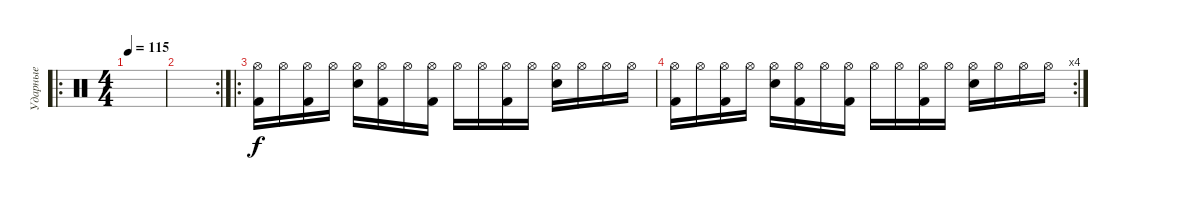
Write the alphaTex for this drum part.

\track ("Ударные " "Ударные ") {instrument percussion}
\staff {score}
\articulation defaults
\ro
\ts (4 4)
\tempo 115
\clef neutral
\ks c
|
\rc 2
|
\ro
("Hi-Hat (open)" "Kick (hit) 2").16 "Hi-Hat (open)".16 ("Hi-Hat (open)" "Kick (hit) 2").16 "Hi-Hat (open)".16 ("Hi-Hat (open)" "Snare (hit) 2").16 ("Hi-Hat (open)" "Kick (hit) 2").16 "Hi-Hat (open)".16 ("Hi-Hat (open)" "Kick (hit) 2").16 "Hi-Hat (open)".16 "Hi-Hat (open)".16 ("Hi-Hat (open)" "Kick (hit) 2").16 "Hi-Hat (open)".16 ("Hi-Hat (open)" "Snare (hit) 2").16 "Hi-Hat (open)".16 "Hi-Hat (open)".16 "Hi-Hat (open)".16 |
\rc 4
("Hi-Hat (open)" "Kick (hit) 2").16 "Hi-Hat (open)".16 ("Hi-Hat (open)" "Kick (hit) 2").16 "Hi-Hat (open)".16 ("Hi-Hat (open)" "Snare (hit) 2").16 ("Hi-Hat (open)" "Kick (hit) 2").16 "Hi-Hat (open)".16 ("Hi-Hat (open)" "Kick (hit) 2").16 "Hi-Hat (open)".16 "Hi-Hat (open)".16 ("Hi-Hat (open)" "Kick (hit) 2").16 "Hi-Hat (open)".16 ("Hi-Hat (open)" "Snare (hit) 2").16 "Hi-Hat (open)".16 "Hi-Hat (open)".16 "Hi-Hat (open)".16
